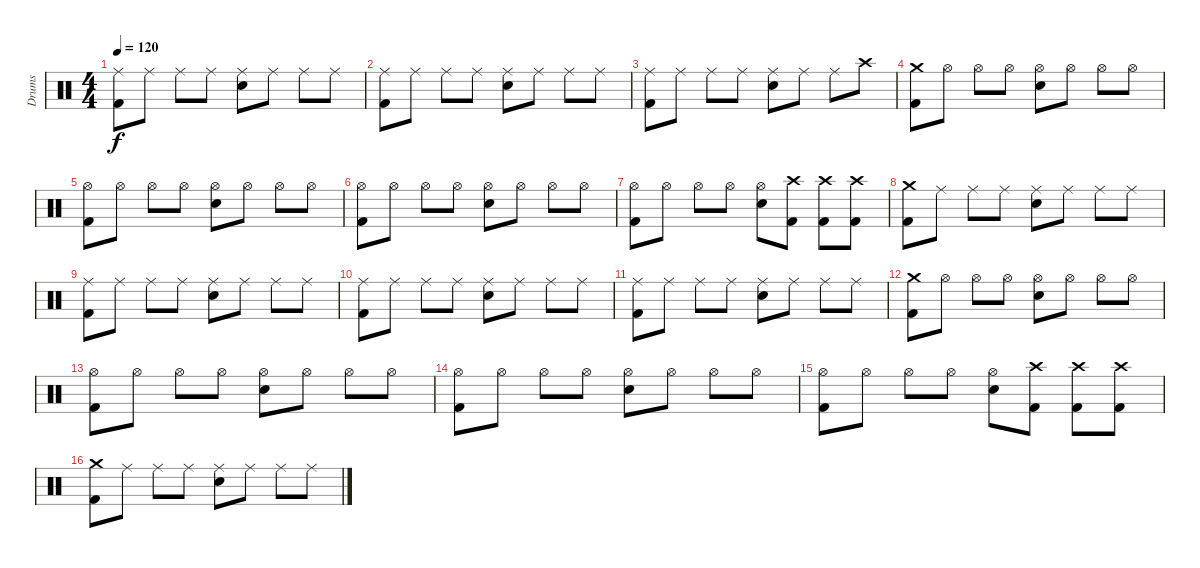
\track ("Drums" "Drums") {instrument percussion}
\staff {score}
\articulation defaults
\ts (4 4)
\tempo 120
\clef neutral
\ks c
("Ride (middle)" "Kick (hit) 2").8{dy f} "Ride (middle)".8 "Ride (middle)".8 "Ride (middle)".8 ("Ride (middle)" "Electric Snare (hit)").8 "Ride (middle)".8 "Ride (middle)".8 "Ride (middle)".8 |
("Ride (middle)" "Kick (hit) 2").8 "Ride (middle)".8 "Ride (middle)".8 "Ride (middle)".8 ("Ride (middle)" "Electric Snare (hit)").8 "Ride (middle)".8 "Ride (middle)".8 "Ride (middle)".8 |
("Ride (middle)" "Kick (hit) 2").8 "Ride (middle)".8 "Ride (middle)".8 "Ride (middle)".8 ("Ride (middle)" "Electric Snare (hit)").8 "Ride (middle)".8 "Ride (middle)".8 "Crash high (hit)".8 |
("Crash medium (hit)" "Kick (hit) 2").8 "Hi-Hat (open)".8 "Hi-Hat (open)".8 "Hi-Hat (open)".8 ("Hi-Hat (open)" "Electric Snare (hit)").8 "Hi-Hat (open)".8 "Hi-Hat (open)".8 "Hi-Hat (open)".8 |
("Hi-Hat (open)" "Kick (hit) 2").8 "Hi-Hat (open)".8 "Hi-Hat (open)".8 "Hi-Hat (open)".8 ("Hi-Hat (open)" "Electric Snare (hit)").8 "Hi-Hat (open)".8 "Hi-Hat (open)".8 "Hi-Hat (open)".8 |
("Hi-Hat (open)" "Kick (hit) 2").8 "Hi-Hat (open)".8 "Hi-Hat (open)".8 "Hi-Hat (open)".8 ("Hi-Hat (open)" "Electric Snare (hit)").8 "Hi-Hat (open)".8 "Hi-Hat (open)".8 "Hi-Hat (open)".8 |
("Hi-Hat (open)" "Kick (hit) 2").8 "Hi-Hat (open)".8 "Hi-Hat (open)".8 "Hi-Hat (open)".8 ("Hi-Hat (open)" "Electric Snare (hit)").8 ("Crash high (hit)" "Kick (hit) 2").8 ("Crash high (hit)" "Kick (hit) 2").8 ("Crash high (hit)" "Kick (hit) 2").8 |
("Crash medium (hit)" "Kick (hit) 2").8 "Ride (middle)".8 "Ride (middle)".8 "Ride (middle)".8 ("Ride (middle)" "Electric Snare (hit)").8 "Ride (middle)".8 "Ride (middle)".8 "Ride (middle)".8 |
("Ride (middle)" "Kick (hit) 2").8 "Ride (middle)".8 "Ride (middle)".8 "Ride (middle)".8 ("Ride (middle)" "Electric Snare (hit)").8 "Ride (middle)".8 "Ride (middle)".8 "Ride (middle)".8 |
("Ride (middle)" "Kick (hit) 2").8 "Ride (middle)".8 "Ride (middle)".8 "Ride (middle)".8 ("Ride (middle)" "Electric Snare (hit)").8 "Ride (middle)".8 "Ride (middle)".8 "Ride (middle)".8 |
("Ride (middle)" "Kick (hit) 2").8 "Ride (middle)".8 "Ride (middle)".8 "Ride (middle)".8 ("Ride (middle)" "Electric Snare (hit)").8 "Ride (middle)".8 "Ride (middle)".8 "Ride (middle)".8 |
("Crash medium (hit)" "Kick (hit) 2").8 "Hi-Hat (open)".8 "Hi-Hat (open)".8 "Hi-Hat (open)".8 ("Hi-Hat (open)" "Electric Snare (hit)").8 "Hi-Hat (open)".8 "Hi-Hat (open)".8 "Hi-Hat (open)".8 |
("Hi-Hat (open)" "Kick (hit) 2").8 "Hi-Hat (open)".8 "Hi-Hat (open)".8 "Hi-Hat (open)".8 ("Hi-Hat (open)" "Electric Snare (hit)").8 "Hi-Hat (open)".8 "Hi-Hat (open)".8 "Hi-Hat (open)".8 |
("Hi-Hat (open)" "Kick (hit) 2").8 "Hi-Hat (open)".8 "Hi-Hat (open)".8 "Hi-Hat (open)".8 ("Hi-Hat (open)" "Electric Snare (hit)").8 "Hi-Hat (open)".8 "Hi-Hat (open)".8 "Hi-Hat (open)".8 |
("Hi-Hat (open)" "Kick (hit) 2").8 "Hi-Hat (open)".8 "Hi-Hat (open)".8 "Hi-Hat (open)".8 ("Hi-Hat (open)" "Electric Snare (hit)").8 ("Crash high (hit)" "Kick (hit) 2").8 ("Crash high (hit)" "Kick (hit) 2").8 ("Crash high (hit)" "Kick (hit) 2").8 |
("Crash medium (hit)" "Kick (hit) 2").8 "Ride (middle)".8 "Ride (middle)".8 "Ride (middle)".8 ("Ride (middle)" "Electric Snare (hit)").8 "Ride (middle)".8 "Ride (middle)".8 "Ride (middle)".8
